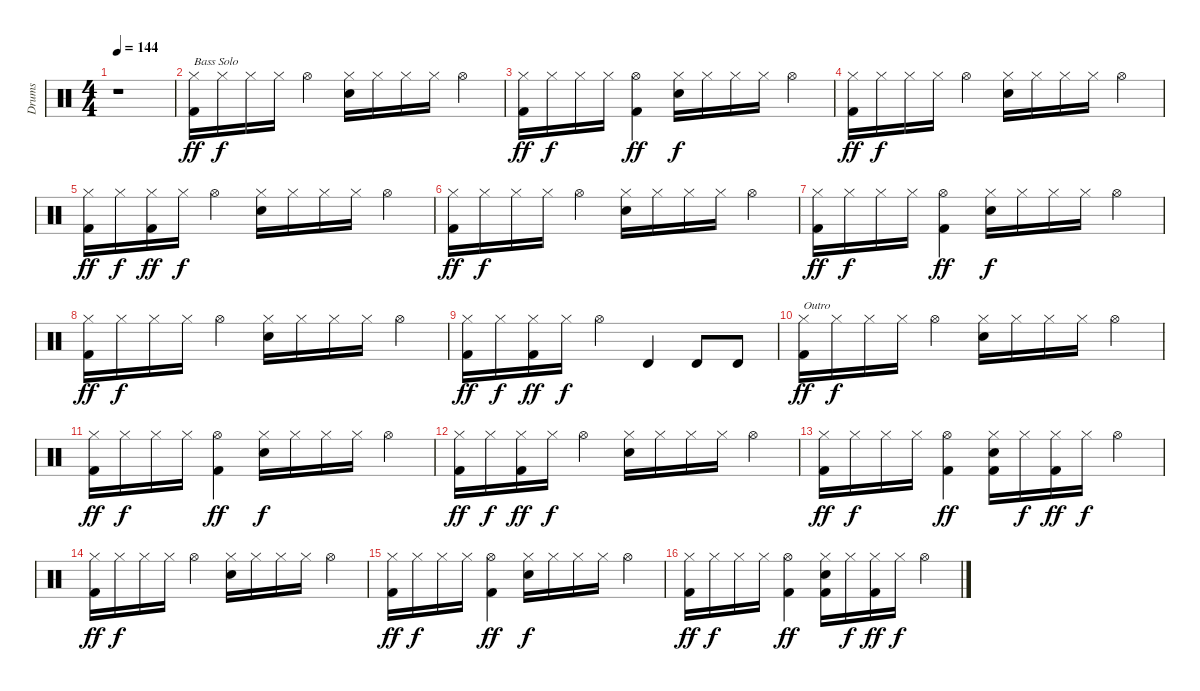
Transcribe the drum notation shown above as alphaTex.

\track ("Drums" "Drums") {instrument percussion}
\staff {score}
\articulation defaults
\ts (4 4)
\tempo 144
\clef neutral
\ks c
r.1{dy ff} |
("Hi-Hat (closed)" "Kick (hit) 2").16{txt "Bass Solo"} "Hi-Hat (closed)".16{dy f} "Hi-Hat (closed)".16 "Hi-Hat (closed)".16 "Hi-Hat (open)".4 ("Hi-Hat (closed)" "Snare (hit) 2").16 "Hi-Hat (closed)".16 "Hi-Hat (closed)".16 "Hi-Hat (closed)".16 "Hi-Hat (open)".4 |
("Hi-Hat (closed)" "Kick (hit) 2").16{dy ff} "Hi-Hat (closed)".16{dy f} "Hi-Hat (closed)".16 "Hi-Hat (closed)".16 ("Hi-Hat (open)" "Kick (hit) 2").4{dy ff} ("Hi-Hat (closed)" "Snare (hit) 2").16{dy f} "Hi-Hat (closed)".16 "Hi-Hat (closed)".16 "Hi-Hat (closed)".16 "Hi-Hat (open)".4 |
("Hi-Hat (closed)" "Kick (hit) 2").16{dy ff} "Hi-Hat (closed)".16{dy f} "Hi-Hat (closed)".16 "Hi-Hat (closed)".16 "Hi-Hat (open)".4 ("Hi-Hat (closed)" "Snare (hit) 2").16 "Hi-Hat (closed)".16 "Hi-Hat (closed)".16 "Hi-Hat (closed)".16 "Hi-Hat (open)".4 |
("Hi-Hat (closed)" "Kick (hit) 2").16{dy ff} "Hi-Hat (closed)".16{dy f} ("Hi-Hat (closed)" "Kick (hit) 2").16{dy ff} "Hi-Hat (closed)".16{dy f} "Hi-Hat (open)".4 ("Hi-Hat (closed)" "Snare (hit) 2").16 "Hi-Hat (closed)".16 "Hi-Hat (closed)".16 "Hi-Hat (closed)".16 "Hi-Hat (open)".4 |
("Hi-Hat (closed)" "Kick (hit) 2").16{dy ff} "Hi-Hat (closed)".16{dy f} "Hi-Hat (closed)".16 "Hi-Hat (closed)".16 "Hi-Hat (open)".4 ("Hi-Hat (closed)" "Snare (hit) 2").16 "Hi-Hat (closed)".16 "Hi-Hat (closed)".16 "Hi-Hat (closed)".16 "Hi-Hat (open)".4 |
("Hi-Hat (closed)" "Kick (hit) 2").16{dy ff} "Hi-Hat (closed)".16{dy f} "Hi-Hat (closed)".16 "Hi-Hat (closed)".16 ("Hi-Hat (open)" "Kick (hit) 2").4{dy ff} ("Hi-Hat (closed)" "Snare (hit) 2").16{dy f} "Hi-Hat (closed)".16 "Hi-Hat (closed)".16 "Hi-Hat (closed)".16 "Hi-Hat (open)".4 |
("Hi-Hat (closed)" "Kick (hit) 2").16{dy ff} "Hi-Hat (closed)".16{dy f} "Hi-Hat (closed)".16 "Hi-Hat (closed)".16 "Hi-Hat (open)".4 ("Hi-Hat (closed)" "Snare (hit) 2").16 "Hi-Hat (closed)".16 "Hi-Hat (closed)".16 "Hi-Hat (closed)".16 "Hi-Hat (open)".4 |
("Hi-Hat (closed)" "Kick (hit) 2").16{dy ff} "Hi-Hat (closed)".16{dy f} ("Hi-Hat (closed)" "Kick (hit) 2").16{dy ff} "Hi-Hat (closed)".16{dy f} "Hi-Hat (open)".4 "Timbale high (hit)".4 "Timbale high (hit)".8 "Timbale high (hit)".8 |
("Hi-Hat (closed)" "Kick (hit) 2").16{txt "Outro" dy ff} "Hi-Hat (closed)".16{dy f} "Hi-Hat (closed)".16 "Hi-Hat (closed)".16 "Hi-Hat (open)".4 ("Hi-Hat (closed)" "Snare (hit) 2").16 "Hi-Hat (closed)".16 "Hi-Hat (closed)".16 "Hi-Hat (closed)".16 "Hi-Hat (open)".4 |
("Hi-Hat (closed)" "Kick (hit) 2").16{dy ff} "Hi-Hat (closed)".16{dy f} "Hi-Hat (closed)".16 "Hi-Hat (closed)".16 ("Hi-Hat (open)" "Kick (hit) 2").4{dy ff} ("Hi-Hat (closed)" "Snare (hit) 2").16{dy f} "Hi-Hat (closed)".16 "Hi-Hat (closed)".16 "Hi-Hat (closed)".16 "Hi-Hat (open)".4 |
("Hi-Hat (closed)" "Kick (hit) 2").16{dy ff} "Hi-Hat (closed)".16{dy f} ("Hi-Hat (closed)" "Kick (hit) 2").16{dy ff} "Hi-Hat (closed)".16{dy f} "Hi-Hat (open)".4 ("Hi-Hat (closed)" "Snare (hit) 2").16 "Hi-Hat (closed)".16 "Hi-Hat (closed)".16 "Hi-Hat (closed)".16 "Hi-Hat (open)".4 |
("Hi-Hat (closed)" "Kick (hit) 2").16{dy ff} "Hi-Hat (closed)".16{dy f} "Hi-Hat (closed)".16 "Hi-Hat (closed)".16 ("Hi-Hat (open)" "Kick (hit) 2").4{dy ff} ("Hi-Hat (closed)" "Snare (hit) 2" "Kick (hit) 2").16 "Hi-Hat (closed)".16{dy f} ("Hi-Hat (closed)" "Kick (hit) 2").16{dy ff} "Hi-Hat (closed)".16{dy f} "Hi-Hat (open)".4 |
("Hi-Hat (closed)" "Kick (hit) 2").16{dy ff} "Hi-Hat (closed)".16{dy f} "Hi-Hat (closed)".16 "Hi-Hat (closed)".16 "Hi-Hat (open)".4 ("Hi-Hat (closed)" "Snare (hit) 2").16 "Hi-Hat (closed)".16 "Hi-Hat (closed)".16 "Hi-Hat (closed)".16 "Hi-Hat (open)".4 |
("Hi-Hat (closed)" "Kick (hit) 2").16{dy ff} "Hi-Hat (closed)".16{dy f} "Hi-Hat (closed)".16 "Hi-Hat (closed)".16 ("Hi-Hat (open)" "Kick (hit) 2").4{dy ff} ("Hi-Hat (closed)" "Snare (hit) 2").16{dy f} "Hi-Hat (closed)".16 "Hi-Hat (closed)".16 "Hi-Hat (closed)".16 "Hi-Hat (open)".4 |
("Hi-Hat (closed)" "Kick (hit) 2").16{dy ff} "Hi-Hat (closed)".16{dy f} "Hi-Hat (closed)".16 "Hi-Hat (closed)".16 ("Hi-Hat (open)" "Kick (hit) 2").4{dy ff} ("Hi-Hat (closed)" "Snare (hit) 2" "Kick (hit) 2").16 "Hi-Hat (closed)".16{dy f} ("Hi-Hat (closed)" "Kick (hit) 2").16{dy ff} "Hi-Hat (closed)".16{dy f} "Hi-Hat (open)".4
